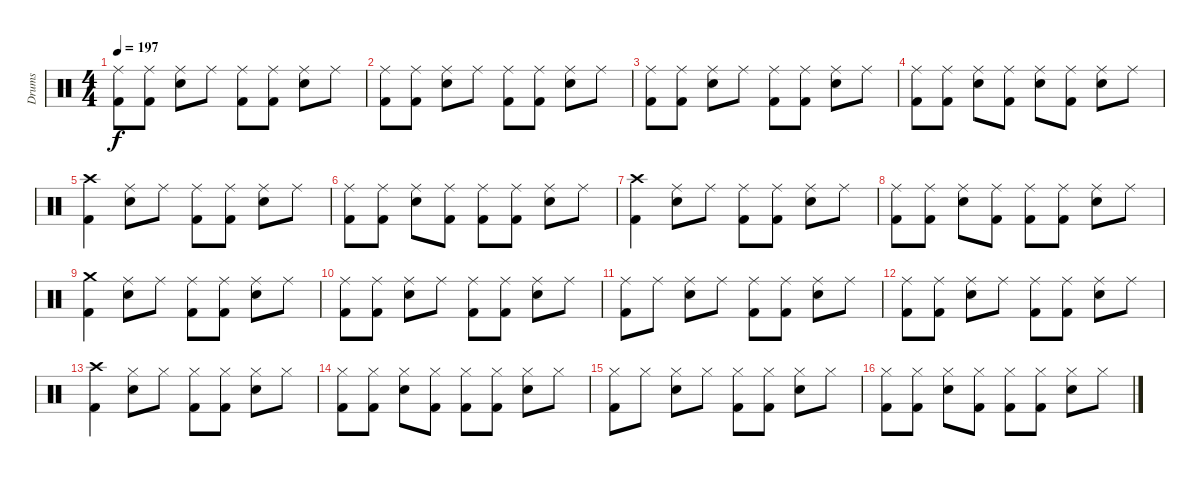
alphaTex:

\track ("Drums" "Drums") {instrument percussion}
\staff {score}
\articulation defaults
\ts (4 4)
\tempo 197
\clef neutral
\ks c
("Ride (middle)" "Kick (hit) 2").8{dy f} ("Ride (middle)" "Kick (hit) 2").8 ("Ride (middle)" "Electric Snare (hit)").8 "Ride (middle)".8 ("Ride (middle)" "Kick (hit) 2").8 ("Ride (middle)" "Kick (hit) 2").8 ("Ride (middle)" "Electric Snare (hit)").8 "Ride (middle)".8 |
("Ride (middle)" "Kick (hit) 2").8 ("Ride (middle)" "Kick (hit) 2").8 ("Ride (middle)" "Electric Snare (hit)").8 "Ride (middle)".8 ("Ride (middle)" "Kick (hit) 2").8 ("Ride (middle)" "Kick (hit) 2").8 ("Ride (middle)" "Electric Snare (hit)").8 "Ride (middle)".8 |
("Ride (middle)" "Kick (hit) 2").8 ("Ride (middle)" "Kick (hit) 2").8 ("Ride (middle)" "Electric Snare (hit)").8 "Ride (middle)".8 ("Ride (middle)" "Kick (hit) 2").8 ("Ride (middle)" "Kick (hit) 2").8 ("Ride (middle)" "Electric Snare (hit)").8 "Ride (middle)".8 |
("Ride (middle)" "Kick (hit) 2").8 ("Ride (middle)" "Kick (hit) 2").8 ("Ride (middle)" "Electric Snare (hit)").8 ("Ride (middle)" "Kick (hit) 2").8 ("Ride (middle)" "Electric Snare (hit)").8 ("Ride (middle)" "Kick (hit) 2").8 ("Ride (middle)" "Electric Snare (hit)").8 "Ride (middle)".8 |
("Crash high (hit)" "Kick (hit) 2").4 ("Ride (middle)" "Electric Snare (hit)").8 "Ride (middle)".8 ("Ride (middle)" "Kick (hit) 2").8 ("Ride (middle)" "Kick (hit) 2").8 ("Ride (middle)" "Electric Snare (hit)").8 "Ride (middle)".8 |
("Ride (middle)" "Kick (hit) 2").8 ("Ride (middle)" "Kick (hit) 2").8 ("Ride (middle)" "Electric Snare (hit)").8 ("Ride (middle)" "Kick (hit) 2").8 ("Ride (middle)" "Kick (hit) 2").8 ("Ride (middle)" "Kick (hit) 2").8 ("Ride (middle)" "Electric Snare (hit)").8 "Ride (middle)".8 |
("Crash high (hit)" "Kick (hit) 2").4 ("Ride (middle)" "Electric Snare (hit)").8 "Ride (middle)".8 ("Ride (middle)" "Kick (hit) 2").8 ("Ride (middle)" "Kick (hit) 2").8 ("Ride (middle)" "Electric Snare (hit)").8 "Ride (middle)".8 |
("Ride (middle)" "Kick (hit) 2").8 ("Ride (middle)" "Kick (hit) 2").8 ("Ride (middle)" "Electric Snare (hit)").8 ("Ride (middle)" "Kick (hit) 2").8 ("Ride (middle)" "Kick (hit) 2").8 ("Ride (middle)" "Kick (hit) 2").8 ("Ride (middle)" "Electric Snare (hit)").8 "Ride (middle)".8 |
("Crash medium (hit)" "Kick (hit) 2").4 ("Ride (middle)" "Electric Snare (hit)").8 "Ride (middle)".8 ("Ride (middle)" "Kick (hit) 2").8 ("Ride (middle)" "Kick (hit) 2").8 ("Ride (middle)" "Electric Snare (hit)").8 "Ride (middle)".8 |
("Ride (middle)" "Kick (hit) 2").8 ("Ride (middle)" "Kick (hit) 2").8 ("Ride (middle)" "Electric Snare (hit)").8 "Ride (middle)".8 ("Ride (middle)" "Kick (hit) 2").8 ("Ride (middle)" "Kick (hit) 2").8 ("Ride (middle)" "Electric Snare (hit)").8 "Ride (middle)".8 |
("Ride (middle)" "Kick (hit) 2").8 "Ride (middle)".8 ("Ride (middle)" "Electric Snare (hit)").8 "Ride (middle)".8 ("Ride (middle)" "Kick (hit) 2").8 ("Ride (middle)" "Kick (hit) 2").8 ("Ride (middle)" "Electric Snare (hit)").8 "Ride (middle)".8 |
("Ride (middle)" "Kick (hit) 2").8 ("Ride (middle)" "Kick (hit) 2").8 ("Ride (middle)" "Electric Snare (hit)").8 "Ride (middle)".8 ("Ride (middle)" "Kick (hit) 2").8 ("Ride (middle)" "Kick (hit) 2").8 ("Ride (middle)" "Electric Snare (hit)").8 "Ride (middle)".8 |
("Crash high (hit)" "Kick (hit) 2").4 ("Hi-Hat (closed)" "Electric Snare (hit)").8 "Hi-Hat (closed)".8 ("Hi-Hat (closed)" "Kick (hit) 2").8 ("Hi-Hat (closed)" "Kick (hit) 2").8 ("Hi-Hat (closed)" "Electric Snare (hit)").8 "Hi-Hat (closed)".8 |
("Hi-Hat (closed)" "Kick (hit) 2").8 ("Hi-Hat (closed)" "Kick (hit) 2").8 ("Hi-Hat (closed)" "Electric Snare (hit)").8 ("Hi-Hat (closed)" "Kick (hit) 2").8 ("Hi-Hat (closed)" "Kick (hit) 2").8 ("Hi-Hat (closed)" "Kick (hit) 2").8 ("Hi-Hat (closed)" "Electric Snare (hit)").8 "Hi-Hat (closed)".8 |
("Hi-Hat (closed)" "Kick (hit) 2").8 "Hi-Hat (closed)".8 ("Hi-Hat (closed)" "Electric Snare (hit)").8 "Hi-Hat (closed)".8 ("Hi-Hat (closed)" "Kick (hit) 2").8 ("Hi-Hat (closed)" "Kick (hit) 2").8 ("Hi-Hat (closed)" "Electric Snare (hit)").8 "Hi-Hat (closed)".8 |
("Hi-Hat (closed)" "Kick (hit) 2").8 ("Hi-Hat (closed)" "Kick (hit) 2").8 ("Hi-Hat (closed)" "Electric Snare (hit)").8 ("Hi-Hat (closed)" "Kick (hit) 2").8 ("Hi-Hat (closed)" "Kick (hit) 2").8 ("Hi-Hat (closed)" "Kick (hit) 2").8 ("Hi-Hat (closed)" "Electric Snare (hit)").8 "Hi-Hat (closed)".8
